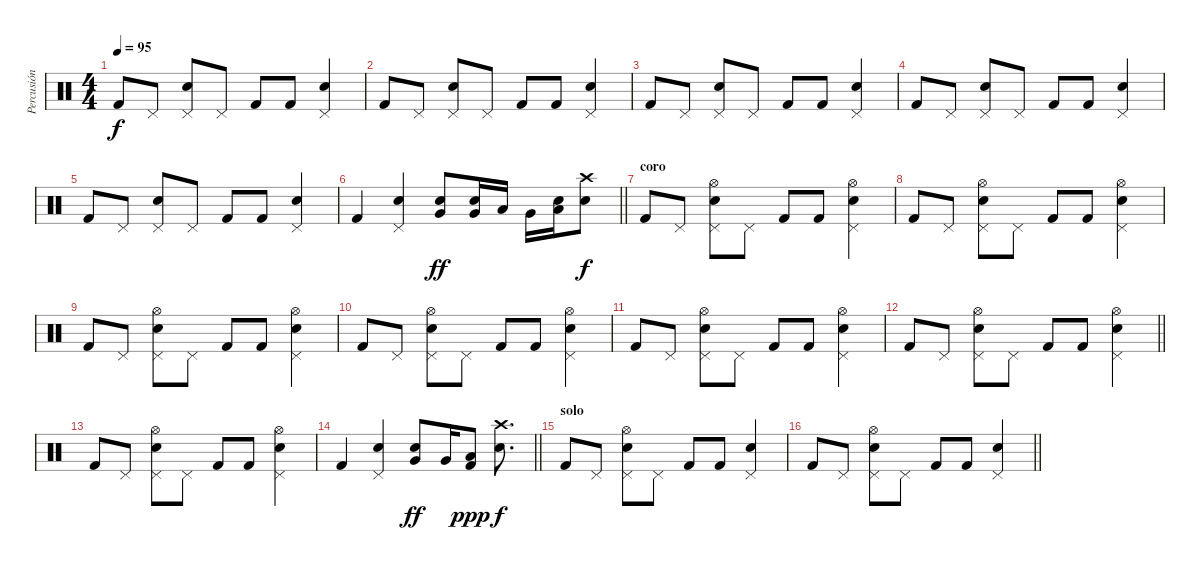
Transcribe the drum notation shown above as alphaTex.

\track ("Percusión" "Percusión") {instrument percussion}
\staff {score}
\articulation defaults
\ts (4 4)
\tempo 95
\clef neutral
\ks c "Kick (hit) 2".8{dy f} "Pedal Hi-Hat (hit)".8
("Snare (hit) 2" "Pedal Hi-Hat (hit)").8 "Pedal Hi-Hat (hit)".8 "Kick (hit) 2".8 "Kick (hit) 2".8 ("Snare (hit) 2" "Pedal Hi-Hat (hit)").4 |
"Kick (hit) 2".8 "Pedal Hi-Hat (hit)".8 ("Snare (hit) 2" "Pedal Hi-Hat (hit)").8 "Pedal Hi-Hat (hit)".8 "Kick (hit) 2".8 "Kick (hit) 2".8 ("Snare (hit) 2" "Pedal Hi-Hat (hit)").4 |
"Kick (hit) 2".8 "Pedal Hi-Hat (hit)".8 ("Snare (hit) 2" "Pedal Hi-Hat (hit)").8 "Pedal Hi-Hat (hit)".8 "Kick (hit) 2".8 "Kick (hit) 2".8 ("Snare (hit) 2" "Pedal Hi-Hat (hit)").4 |
"Kick (hit) 2".8 "Pedal Hi-Hat (hit)".8 ("Snare (hit) 2" "Pedal Hi-Hat (hit)").8 "Pedal Hi-Hat (hit)".8 "Kick (hit) 2".8 "Kick (hit) 2".8 ("Snare (hit) 2" "Pedal Hi-Hat (hit)").4 |
"Kick (hit) 2".8 "Pedal Hi-Hat (hit)".8 ("Snare (hit) 2" "Pedal Hi-Hat (hit)").8 "Pedal Hi-Hat (hit)".8 "Kick (hit) 2".8 "Kick (hit) 2".8 ("Snare (hit) 2" "Pedal Hi-Hat (hit)").4 |
\barLineRight lightlight "Kick (hit) 2".4
("Snare (hit) 2" "Pedal Hi-Hat (hit)").4 ("Very Low Tom (hit)" "Snare (hit) 2").8{dy ff} ("Very Low Tom (hit)" "Snare (hit) 2").16 "Low Tom (hit)".16 "Very Low Tom (hit)".16 ("Snare (hit) 2" "Low Floor Tom (hit)").16 ("Crash high (hit)" "Snare (hit) 2").8{dy f} |
\section ("" "coro")
"Kick (hit) 2".8 "Pedal Hi-Hat (hit)".8 ("Snare (hit) 2" "Pedal Hi-Hat (hit)" "Hi-Hat (open)").8 "Pedal Hi-Hat (hit)".8 "Kick (hit) 2".8 "Kick (hit) 2".8 ("Snare (hit) 2" "Pedal Hi-Hat (hit)" "Hi-Hat (open)").4 |
"Kick (hit) 2".8 "Pedal Hi-Hat (hit)".8 ("Snare (hit) 2" "Pedal Hi-Hat (hit)" "Hi-Hat (open)").8 "Pedal Hi-Hat (hit)".8 "Kick (hit) 2".8 "Kick (hit) 2".8 ("Snare (hit) 2" "Pedal Hi-Hat (hit)" "Hi-Hat (open)").4 |
"Kick (hit) 2".8 "Pedal Hi-Hat (hit)".8 ("Snare (hit) 2" "Pedal Hi-Hat (hit)" "Hi-Hat (open)").8 "Pedal Hi-Hat (hit)".8 "Kick (hit) 2".8 "Kick (hit) 2".8 ("Snare (hit) 2" "Pedal Hi-Hat (hit)" "Hi-Hat (open)").4 |
"Kick (hit) 2".8 "Pedal Hi-Hat (hit)".8 ("Snare (hit) 2" "Pedal Hi-Hat (hit)" "Hi-Hat (open)").8 "Pedal Hi-Hat (hit)".8 "Kick (hit) 2".8 "Kick (hit) 2".8 ("Snare (hit) 2" "Pedal Hi-Hat (hit)" "Hi-Hat (open)").4 |
"Kick (hit) 2".8 "Pedal Hi-Hat (hit)".8 ("Snare (hit) 2" "Pedal Hi-Hat (hit)" "Hi-Hat (open)").8 "Pedal Hi-Hat (hit)".8 "Kick (hit) 2".8 "Kick (hit) 2".8 ("Snare (hit) 2" "Pedal Hi-Hat (hit)" "Hi-Hat (open)").4 |
\barLineRight lightlight "Kick (hit) 2".8 "Pedal Hi-Hat (hit)".8
("Snare (hit) 2" "Pedal Hi-Hat (hit)" "Hi-Hat (open)").8 "Pedal Hi-Hat (hit)".8 "Kick (hit) 2".8 "Kick (hit) 2".8 ("Snare (hit) 2" "Pedal Hi-Hat (hit)" "Hi-Hat (open)").4 |
"Kick (hit) 2".8 "Pedal Hi-Hat (hit)".8 ("Snare (hit) 2" "Pedal Hi-Hat (hit)" "Hi-Hat (open)").8 "Pedal Hi-Hat (hit)".8 "Kick (hit) 2".8 "Kick (hit) 2".8 ("Snare (hit) 2" "Pedal Hi-Hat (hit)" "Hi-Hat (open)").4 |
\barLineRight lightlight "Kick (hit) 2".4
("Snare (hit) 2" "Pedal Hi-Hat (hit)").4 ("Very Low Tom (hit)" "Snare (hit) 2").8{dy ff} "Very Low Tom (hit)".16 ("Low Tom (hit)" "Kick (hit) 2").8{dy ppp} ("Crash high (hit)" "Snare (hit) 2").8{d dy f} |
\section ("" "solo")
"Kick (hit) 2".8 "Pedal Hi-Hat (hit)".8 ("Snare (hit) 2" "Pedal Hi-Hat (hit)" "Hi-Hat (open)").8 "Pedal Hi-Hat (hit)".8 "Kick (hit) 2".8 "Kick (hit) 2".8 ("Snare (hit) 2" "Pedal Hi-Hat (hit)").4 |
\barLineRight lightlight "Kick (hit) 2".8 "Pedal Hi-Hat (hit)".8
("Snare (hit) 2" "Pedal Hi-Hat (hit)" "Hi-Hat (open)").8 "Pedal Hi-Hat (hit)".8 "Kick (hit) 2".8 "Kick (hit) 2".8 ("Snare (hit) 2" "Pedal Hi-Hat (hit)").4
